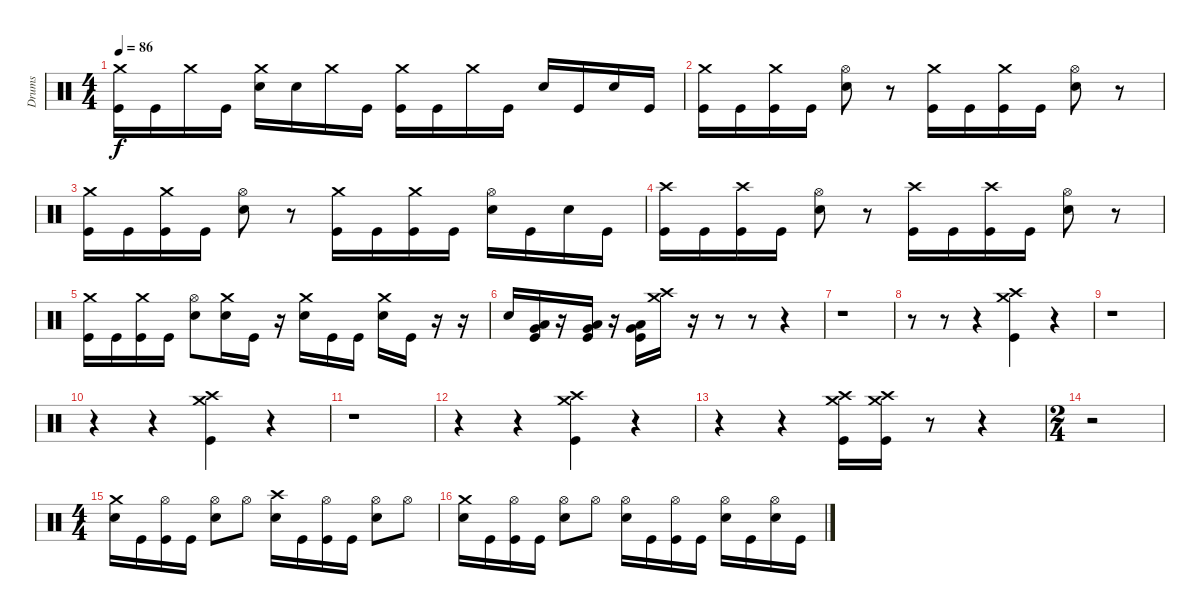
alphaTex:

\track ("Drums" "Drums") {instrument percussion}
\staff {score}
\articulation defaults
\ts (4 4)
\tempo 86
\clef neutral
\ks c
("Crash medium (hit)" "Kick (hit)").16{dy f volume 13} "Kick (hit)".16 "Crash medium (hit)".16 "Kick (hit)".16 ("Crash medium (hit)" "Electric Snare (hit)").16 "Electric Snare (hit)".16 "Crash medium (hit)".16 "Kick (hit)".16 ("Crash medium (hit)" "Kick (hit)").16 "Kick (hit)".16 "Crash medium (hit)".16 "Kick (hit)".16 "Electric Snare (hit)".16 "Kick (hit)".16 "Electric Snare (hit)".16 "Kick (hit)".16 |
("Crash medium (hit)" "Kick (hit)").16 "Kick (hit)".16 ("Crash medium (hit)" "Kick (hit)").16 "Kick (hit)".16 ("Hi-Hat (open)" "Electric Snare (hit)").8 r.8 ("Crash medium (hit)" "Kick (hit)").16 "Kick (hit)".16 ("Crash medium (hit)" "Kick (hit)").16 "Kick (hit)".16 ("Hi-Hat (open)" "Electric Snare (hit)").8 r.8 |
("Crash medium (hit)" "Kick (hit)").16 "Kick (hit)".16 ("Crash medium (hit)" "Kick (hit)").16 "Kick (hit)".16 ("Hi-Hat (open)" "Electric Snare (hit)").8 r.8 ("Crash medium (hit)" "Kick (hit)").16 "Kick (hit)".16 ("Crash medium (hit)" "Kick (hit)").16 "Kick (hit)".16 ("Hi-Hat (open)" "Electric Snare (hit)").16 "Kick (hit)".16 "Electric Snare (hit)".16 "Kick (hit)".16 |
("Crash high (hit)" "Kick (hit)").16 "Kick (hit)".16 ("Crash high (hit)" "Kick (hit)").16 "Kick (hit)".16 ("Hi-Hat (open)" "Electric Snare (hit)").8 r.8 ("Crash high (hit)" "Kick (hit)").16 "Kick (hit)".16 ("Crash high (hit)" "Kick (hit)").16 "Kick (hit)".16 ("Hi-Hat (open)" "Electric Snare (hit)").8 r.8 |
("Crash medium (hit)" "Kick (hit)").16 "Kick (hit)".16 ("Crash medium (hit)" "Kick (hit)").16 "Kick (hit)".16 ("Hi-Hat (open)" "Electric Snare (hit)").8 ("Crash medium (hit)" "Electric Snare (hit)").16 "Kick (hit)".16 r.16 ("Crash medium (hit)" "Electric Snare (hit)").16 "Kick (hit)".16 "Kick (hit)".16 ("Crash medium (hit)" "Electric Snare (hit)").16 "Kick (hit)".16 r.16 r.16 |
"Electric Snare (hit)".16 ("Low Floor Tom (hit)" "Very Low Tom (hit)" "Kick (hit)").16 r.16 ("Low Tom (hit)" "Very Low Tom (hit)" "Kick (hit)").16 r.16 ("Very Low Tom (hit)" "Low Floor Tom (hit)" "Kick (hit)").16 ("Crash high (hit)" "Crash medium (hit)").16 r.16 r.8 r.8 r.4 |
r.1 |
r.8 r.8 r.4 ("Crash medium (hit)" "Crash high (hit)" "Kick (hit)").4 r.4 |
r.1 |
r.4 r.4 ("Crash medium (hit)" "Crash high (hit)" "Kick (hit)").4 r.4 |
r.1 |
r.4 r.4 ("Crash medium (hit)" "Crash high (hit)" "Kick (hit)").4 r.4 |
r.4 r.4 ("Crash medium (hit)" "Crash high (hit)" "Kick (hit)").16 ("Crash medium (hit)" "Crash high (hit)" "Kick (hit)").16 r.8 r.4 |
\ts (2 4)
r.2 |
\ts (4 4)
("Crash medium (hit)" "Electric Snare (hit)").16 "Kick (hit)".16 ("Hi-Hat (open)" "Kick (hit)").16 "Kick (hit)".16 ("Hi-Hat (open)" "Electric Snare (hit)").8 "Hi-Hat (open)".8 ("Crash high (hit)" "Electric Snare (hit)").16 "Kick (hit)".16 ("Hi-Hat (open)" "Kick (hit)").16 "Kick (hit)".16 ("Hi-Hat (open)" "Electric Snare (hit)").8 "Hi-Hat (open)".8 |
("Crash medium (hit)" "Electric Snare (hit)").16 "Kick (hit)".16 ("Hi-Hat (open)" "Kick (hit)").16 "Kick (hit)".16 ("Hi-Hat (open)" "Electric Snare (hit)").8 "Hi-Hat (open)".8 ("Hi-Hat (open)" "Electric Snare (hit)").16 "Kick (hit)".16 ("Hi-Hat (open)" "Kick (hit)").16 "Kick (hit)".16 ("Hi-Hat (open)" "Electric Snare (hit)").16 "Kick (hit)".16 ("Hi-Hat (open)" "Electric Snare (hit)").16 "Kick (hit)".16
